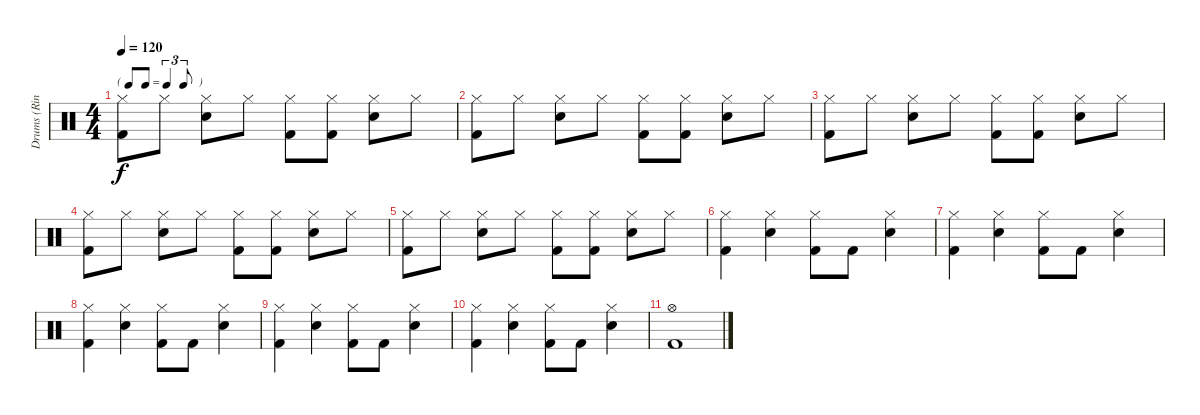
\track ("Drums (Ringo Starr)" "Drums (Rin") {instrument percussion}
\staff {score}
\articulation defaults
\ts (4 4)
\tf triplet8th
\tempo 120
\clef neutral
\ks c
("Hi-Hat (closed)" "Kick (hit) 2").8{dy f} "Hi-Hat (closed)".8 ("Hi-Hat (closed)" "Snare (hit) 2").8 "Hi-Hat (closed)".8 ("Hi-Hat (closed)" "Kick (hit) 2").8 ("Hi-Hat (closed)" "Kick (hit) 2").8 ("Hi-Hat (closed)" "Snare (hit) 2").8 "Hi-Hat (closed)".8 |
("Hi-Hat (closed)" "Kick (hit) 2").8 "Hi-Hat (closed)".8 ("Hi-Hat (closed)" "Snare (hit) 2").8 "Hi-Hat (closed)".8 ("Hi-Hat (closed)" "Kick (hit) 2").8 ("Hi-Hat (closed)" "Kick (hit) 2").8 ("Hi-Hat (closed)" "Snare (hit) 2").8 "Hi-Hat (closed)".8 |
("Hi-Hat (closed)" "Kick (hit) 2").8 "Hi-Hat (closed)".8 ("Hi-Hat (closed)" "Snare (hit) 2").8 "Hi-Hat (closed)".8 ("Hi-Hat (closed)" "Kick (hit) 2").8 ("Hi-Hat (closed)" "Kick (hit) 2").8 ("Hi-Hat (closed)" "Snare (hit) 2").8 "Hi-Hat (closed)".8 |
("Hi-Hat (closed)" "Kick (hit) 2").8 "Hi-Hat (closed)".8 ("Hi-Hat (closed)" "Snare (hit) 2").8 "Hi-Hat (closed)".8 ("Hi-Hat (closed)" "Kick (hit) 2").8 ("Hi-Hat (closed)" "Kick (hit) 2").8 ("Hi-Hat (closed)" "Snare (hit) 2").8 "Hi-Hat (closed)".8 |
("Hi-Hat (closed)" "Kick (hit) 2").8 "Hi-Hat (closed)".8 ("Hi-Hat (closed)" "Snare (hit) 2").8 "Hi-Hat (closed)".8 ("Hi-Hat (closed)" "Kick (hit) 2").8 ("Hi-Hat (closed)" "Kick (hit) 2").8 ("Hi-Hat (closed)" "Snare (hit) 2").8 "Hi-Hat (closed)".8 |
("Hi-Hat (closed)" "Kick (hit) 2").4 ("Hi-Hat (closed)" "Snare (hit) 2").4 ("Hi-Hat (closed)" "Kick (hit) 2").8 "Kick (hit) 2".8 ("Hi-Hat (closed)" "Snare (hit) 2").4 |
("Hi-Hat (closed)" "Kick (hit) 2").4 ("Hi-Hat (closed)" "Snare (hit) 2").4 ("Hi-Hat (closed)" "Kick (hit) 2").8 "Kick (hit) 2".8 ("Hi-Hat (closed)" "Snare (hit) 2").4 |
("Hi-Hat (closed)" "Kick (hit) 2").4 ("Hi-Hat (closed)" "Snare (hit) 2").4 ("Hi-Hat (closed)" "Kick (hit) 2").8 "Kick (hit) 2".8 ("Hi-Hat (closed)" "Snare (hit) 2").4 |
("Hi-Hat (closed)" "Kick (hit) 2").4 ("Hi-Hat (closed)" "Snare (hit) 2").4 ("Hi-Hat (closed)" "Kick (hit) 2").8 "Kick (hit) 2".8 ("Hi-Hat (closed)" "Snare (hit) 2").4 |
("Hi-Hat (closed)" "Kick (hit) 2").4 ("Hi-Hat (closed)" "Snare (hit) 2").4 ("Hi-Hat (closed)" "Kick (hit) 2").8 "Kick (hit) 2".8 ("Hi-Hat (closed)" "Snare (hit) 2").4 |
("Hi-Hat (open)" "Kick (hit) 2").1
